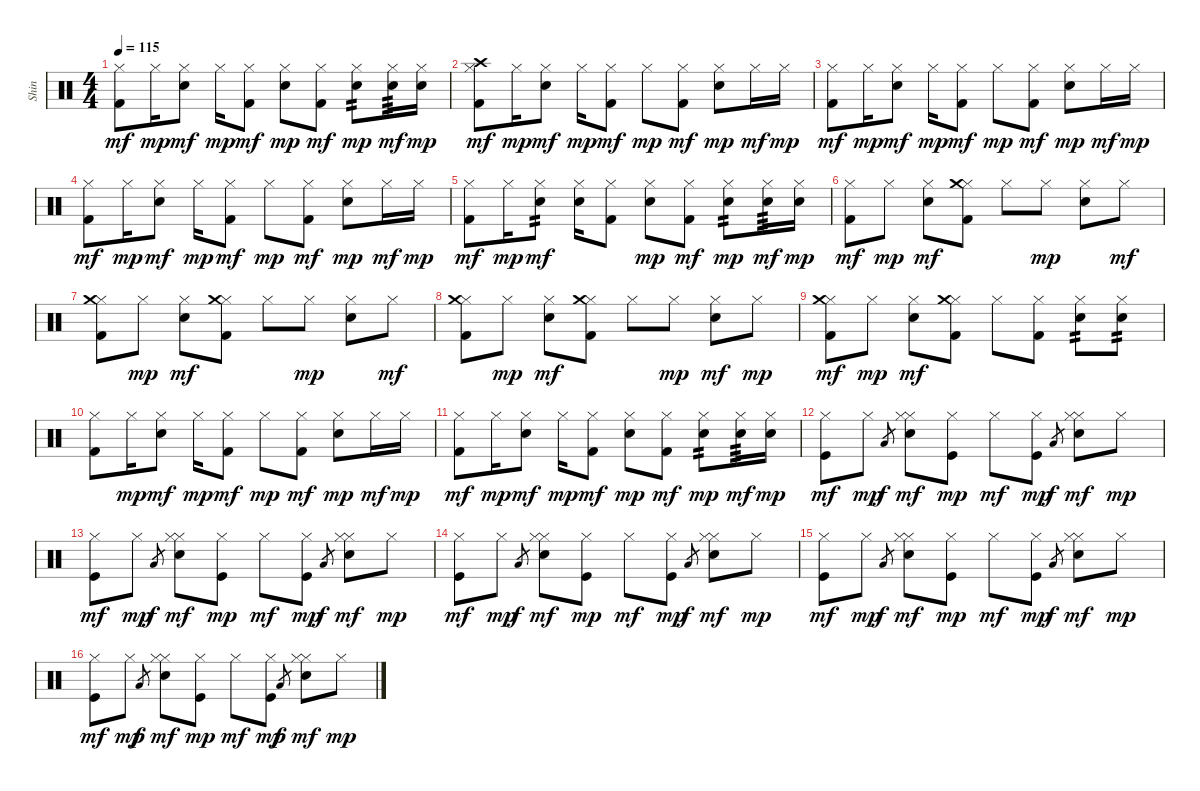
\track ("Shin" "Shin") {instrument percussion}
\staff {score}
\articulation defaults
\ts (4 4)
\tempo 115
\clef neutral
\ks c
("Hi-Hat (closed)" "Kick (hit) 2").8{dy mf} "Hi-Hat (closed)".16{dy mp} ("Hi-Hat (closed)" "Snare (hit) 2").8{dy mf} "Hi-Hat (closed)".16{dy mp} ("Hi-Hat (closed)" "Kick (hit) 2").8{dy mf} ("Hi-Hat (closed)" "Snare (hit) 2").8{dy mp} ("Hi-Hat (closed)" "Kick (hit) 2").8{dy mf} ("Hi-Hat (closed)" "Snare (hit) 2").8{tp 2 dy mp} ("Hi-Hat (closed)" "Snare (hit) 2").16{tp 3 dy mf} ("Hi-Hat (closed)" "Snare (hit) 2").16{dy mp} |
("Hi-Hat (closed)" "Crash high (hit)" "Kick (hit) 2").8{dy mf} "Hi-Hat (closed)".16{dy mp} ("Hi-Hat (closed)" "Snare (hit) 2").8{dy mf} "Hi-Hat (closed)".16{dy mp} ("Hi-Hat (closed)" "Kick (hit) 2").8{dy mf} "Hi-Hat (closed)".8{dy mp} ("Hi-Hat (closed)" "Kick (hit) 2").8{dy mf} ("Hi-Hat (closed)" "Snare (hit) 2").8{dy mp} "Hi-Hat (closed)".16{dy mf} "Hi-Hat (closed)".16{dy mp} |
("Hi-Hat (closed)" "Kick (hit) 2").8{dy mf} "Hi-Hat (closed)".16{dy mp} ("Hi-Hat (closed)" "Snare (hit) 2").8{dy mf} "Hi-Hat (closed)".16{dy mp} ("Hi-Hat (closed)" "Kick (hit) 2").8{dy mf} "Hi-Hat (closed)".8{dy mp} ("Hi-Hat (closed)" "Kick (hit) 2").8{dy mf} ("Hi-Hat (closed)" "Snare (hit) 2").8{dy mp} "Hi-Hat (closed)".16{dy mf} "Hi-Hat (closed)".16{dy mp} |
("Hi-Hat (closed)" "Kick (hit) 2").8{dy mf} "Hi-Hat (closed)".16{dy mp} ("Hi-Hat (closed)" "Snare (hit) 2").8{dy mf} "Hi-Hat (closed)".16{dy mp} ("Hi-Hat (closed)" "Kick (hit) 2").8{dy mf} "Hi-Hat (closed)".8{dy mp} ("Hi-Hat (closed)" "Kick (hit) 2").8{dy mf} ("Hi-Hat (closed)" "Snare (hit) 2").8{dy mp} "Hi-Hat (closed)".16{dy mf} "Hi-Hat (closed)".16{dy mp} |
("Hi-Hat (closed)" "Kick (hit) 2").8{dy mf} "Hi-Hat (closed)".16{dy mp} ("Hi-Hat (closed)" "Snare (hit) 2").8{tp 2 dy mf} ("Hi-Hat (closed)" "Snare (hit) 2").16 ("Hi-Hat (closed)" "Kick (hit) 2").8 ("Hi-Hat (closed)" "Snare (hit) 2").8{dy mp} ("Hi-Hat (closed)" "Kick (hit) 2").8{dy mf} ("Hi-Hat (closed)" "Snare (hit) 2").8{tp 2 dy mp} ("Hi-Hat (closed)" "Snare (hit) 2").16{tp 3 dy mf} ("Hi-Hat (closed)" "Snare (hit) 2").16{dy mp} |
("Hi-Hat (closed)" "Kick (hit) 2").8{dy mf} "Hi-Hat (closed)".8{dy mp} ("Hi-Hat (closed)" "Snare (hit) 2").8{dy mf} ("Hi-Hat (closed)" "Crash medium (hit)" "Kick (hit) 2").8 "Hi-Hat (closed)".8 "Hi-Hat (closed)".8{dy mp} ("Hi-Hat (closed)" "Snare (hit) 2").8 "Hi-Hat (closed)".8{dy mf} |
("Hi-Hat (closed)" "Crash medium (hit)" "Kick (hit) 2").8 "Hi-Hat (closed)".8{dy mp} ("Hi-Hat (closed)" "Snare (hit) 2").8{dy mf} ("Hi-Hat (closed)" "Crash medium (hit)" "Kick (hit) 2").8 "Hi-Hat (closed)".8 "Hi-Hat (closed)".8{dy mp} ("Hi-Hat (closed)" "Snare (hit) 2").8 "Hi-Hat (closed)".8{dy mf} |
("Hi-Hat (closed)" "Crash medium (hit)" "Kick (hit) 2").8 "Hi-Hat (closed)".8{dy mp} ("Hi-Hat (closed)" "Snare (hit) 2").8{dy mf} ("Hi-Hat (closed)" "Crash medium (hit)" "Kick (hit) 2").8 "Hi-Hat (closed)".8 "Hi-Hat (closed)".8{dy mp} ("Hi-Hat (closed)" "Snare (hit) 2").8{dy mf} "Hi-Hat (closed)".8{dy mp} |
("Hi-Hat (closed)" "Crash medium (hit)" "Kick (hit) 2").8{dy mf} "Hi-Hat (closed)".8{dy mp} ("Hi-Hat (closed)" "Snare (hit) 2").8{dy mf} ("Hi-Hat (closed)" "Crash medium (hit)" "Kick (hit) 2").8 "Hi-Hat (closed)".8 ("Hi-Hat (closed)" "Kick (hit) 2").8 ("Hi-Hat (closed)" "Snare (hit) 2").8{tp 2} ("Hi-Hat (closed)" "Snare (hit) 2").8{tp 2} |
("Hi-Hat (closed)" "Kick (hit) 2").8 "Hi-Hat (closed)".16{dy mp} ("Hi-Hat (closed)" "Snare (hit) 2").8{dy mf} "Hi-Hat (closed)".16{dy mp} ("Hi-Hat (closed)" "Kick (hit) 2").8{dy mf} "Hi-Hat (closed)".8{dy mp} ("Hi-Hat (closed)" "Kick (hit) 2").8{dy mf} ("Hi-Hat (closed)" "Snare (hit) 2").8{dy mp} "Hi-Hat (closed)".16{dy mf} "Hi-Hat (closed)".16{dy mp} |
("Hi-Hat (closed)" "Kick (hit) 2").8{dy mf} "Hi-Hat (closed)".16{dy mp} ("Hi-Hat (closed)" "Snare (hit) 2").8{dy mf} "Hi-Hat (closed)".16{dy mp} ("Hi-Hat (closed)" "Kick (hit) 2").8{dy mf} ("Hi-Hat (closed)" "Snare (hit) 2").8{dy mp} ("Hi-Hat (closed)" "Kick (hit) 2").8{dy mf} ("Hi-Hat (closed)" "Snare (hit) 2").8{tp 2 dy mp} ("Hi-Hat (closed)" "Snare (hit) 2").16{tp 3 dy mf} ("Hi-Hat (closed)" "Snare (hit) 2").16{dy mp} |
("Hi-Hat (closed)" "Kick (hit)").8{dy mf} "Hi-Hat (closed)".8{dy mp} "Low Tom (hit)".8{gr dy f} ("Hi-Hat (closed)" "Hi-Hat (closed)" "Snare (hit) 2").8{dy mf} ("Hi-Hat (closed)" "Kick (hit)").8{dy mp} "Hi-Hat (closed)".8{dy mf} ("Hi-Hat (closed)" "Kick (hit)").8{dy mp} "Low Tom (hit)".8{gr dy f} ("Hi-Hat (closed)" "Hi-Hat (closed)" "Snare (hit) 2").8{dy mf} "Hi-Hat (closed)".8{dy mp} |
("Hi-Hat (closed)" "Kick (hit)").8{dy mf} "Hi-Hat (closed)".8{dy mp} "Low Tom (hit)".8{gr dy f} ("Hi-Hat (closed)" "Hi-Hat (closed)" "Snare (hit) 2").8{dy mf} ("Hi-Hat (closed)" "Kick (hit)").8{dy mp} "Hi-Hat (closed)".8{dy mf} ("Hi-Hat (closed)" "Kick (hit)").8{dy mp} "Low Tom (hit)".8{gr dy f} ("Hi-Hat (closed)" "Hi-Hat (closed)" "Snare (hit) 2").8{dy mf} "Hi-Hat (closed)".8{dy mp} |
("Hi-Hat (closed)" "Kick (hit)").8{dy mf} "Hi-Hat (closed)".8{dy mp} "Low Tom (hit)".8{gr dy f} ("Hi-Hat (closed)" "Hi-Hat (closed)" "Snare (hit) 2").8{dy mf} ("Hi-Hat (closed)" "Kick (hit)").8{dy mp} "Hi-Hat (closed)".8{dy mf} ("Hi-Hat (closed)" "Kick (hit)").8{dy mp} "Low Tom (hit)".8{gr dy f} ("Hi-Hat (closed)" "Hi-Hat (closed)" "Snare (hit) 2").8{dy mf} "Hi-Hat (closed)".8{dy mp} |
("Hi-Hat (closed)" "Kick (hit)").8{dy mf} "Hi-Hat (closed)".8{dy mp} "Low Tom (hit)".8{gr dy f} ("Hi-Hat (closed)" "Hi-Hat (closed)" "Snare (hit) 2").8{dy mf} ("Hi-Hat (closed)" "Kick (hit)").8{dy mp} "Hi-Hat (closed)".8{dy mf} ("Hi-Hat (closed)" "Kick (hit)").8{dy mp} "Low Tom (hit)".8{gr dy f} ("Hi-Hat (closed)" "Hi-Hat (closed)" "Snare (hit) 2").8{dy mf} "Hi-Hat (closed)".8{dy mp} |
("Hi-Hat (closed)" "Kick (hit)").8{dy mf} "Hi-Hat (closed)".8{dy mp} "Low Tom (hit)".8{gr dy f} ("Hi-Hat (closed)" "Hi-Hat (closed)" "Snare (hit) 2").8{dy mf} ("Hi-Hat (closed)" "Kick (hit)").8{dy mp} "Hi-Hat (closed)".8{dy mf} ("Hi-Hat (closed)" "Kick (hit)").8{dy mp} "Low Tom (hit)".8{gr dy f} ("Hi-Hat (closed)" "Hi-Hat (closed)" "Snare (hit) 2").8{dy mf} "Hi-Hat (closed)".8{dy mp}
